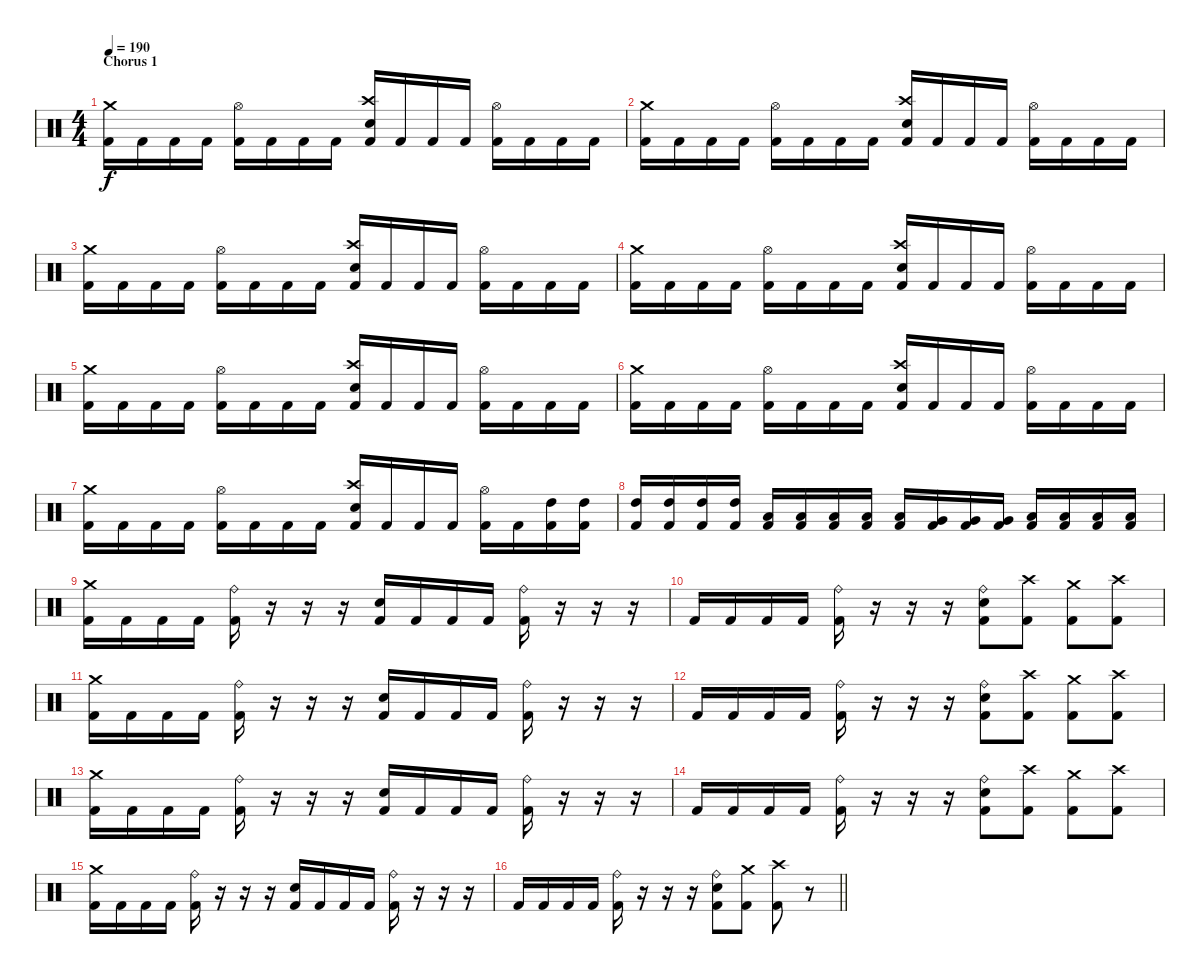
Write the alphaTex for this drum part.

\track "" {instrument percussion}
\staff {score}
\articulation defaults
\ts (4 4)
\section ("" "Chorus 1")
\tempo 190
\clef neutral
\ks c
("Crash medium (hit)" "Kick (hit) 2").16{dy f} "Kick (hit) 2".16 "Kick (hit) 2".16 "Kick (hit) 2".16 ("Hi-Hat (open)" "Kick (hit) 2").16 "Kick (hit) 2".16 "Kick (hit) 2".16 "Kick (hit) 2".16 ("Crash high (hit)" "Electric Snare (hit)" "Kick (hit) 2").16 "Kick (hit) 2".16 "Kick (hit) 2".16 "Kick (hit) 2".16 ("Hi-Hat (open)" "Kick (hit) 2").16 "Kick (hit) 2".16 "Kick (hit) 2".16 "Kick (hit) 2".16 |
("Crash medium (hit)" "Kick (hit) 2").16 "Kick (hit) 2".16 "Kick (hit) 2".16 "Kick (hit) 2".16 ("Hi-Hat (open)" "Kick (hit) 2").16 "Kick (hit) 2".16 "Kick (hit) 2".16 "Kick (hit) 2".16 ("Crash high (hit)" "Electric Snare (hit)" "Kick (hit) 2").16 "Kick (hit) 2".16 "Kick (hit) 2".16 "Kick (hit) 2".16 ("Hi-Hat (open)" "Kick (hit) 2").16 "Kick (hit) 2".16 "Kick (hit) 2".16 "Kick (hit) 2".16 |
("Crash medium (hit)" "Kick (hit) 2").16 "Kick (hit) 2".16 "Kick (hit) 2".16 "Kick (hit) 2".16 ("Hi-Hat (open)" "Kick (hit) 2").16 "Kick (hit) 2".16 "Kick (hit) 2".16 "Kick (hit) 2".16 ("Crash high (hit)" "Electric Snare (hit)" "Kick (hit) 2").16 "Kick (hit) 2".16 "Kick (hit) 2".16 "Kick (hit) 2".16 ("Hi-Hat (open)" "Kick (hit) 2").16 "Kick (hit) 2".16 "Kick (hit) 2".16 "Kick (hit) 2".16 |
("Crash medium (hit)" "Kick (hit) 2").16 "Kick (hit) 2".16 "Kick (hit) 2".16 "Kick (hit) 2".16 ("Hi-Hat (open)" "Kick (hit) 2").16 "Kick (hit) 2".16 "Kick (hit) 2".16 "Kick (hit) 2".16 ("Crash high (hit)" "Electric Snare (hit)" "Kick (hit) 2").16 "Kick (hit) 2".16 "Kick (hit) 2".16 "Kick (hit) 2".16 ("Hi-Hat (open)" "Kick (hit) 2").16 "Kick (hit) 2".16 "Kick (hit) 2".16 "Kick (hit) 2".16 |
("Crash medium (hit)" "Kick (hit) 2").16 "Kick (hit) 2".16 "Kick (hit) 2".16 "Kick (hit) 2".16 ("Hi-Hat (open)" "Kick (hit) 2").16 "Kick (hit) 2".16 "Kick (hit) 2".16 "Kick (hit) 2".16 ("Crash high (hit)" "Electric Snare (hit)" "Kick (hit) 2").16 "Kick (hit) 2".16 "Kick (hit) 2".16 "Kick (hit) 2".16 ("Hi-Hat (open)" "Kick (hit) 2").16 "Kick (hit) 2".16 "Kick (hit) 2".16 "Kick (hit) 2".16 |
("Crash medium (hit)" "Kick (hit) 2").16 "Kick (hit) 2".16 "Kick (hit) 2".16 "Kick (hit) 2".16 ("Hi-Hat (open)" "Kick (hit) 2").16 "Kick (hit) 2".16 "Kick (hit) 2".16 "Kick (hit) 2".16 ("Crash high (hit)" "Electric Snare (hit)" "Kick (hit) 2").16 "Kick (hit) 2".16 "Kick (hit) 2".16 "Kick (hit) 2".16 ("Hi-Hat (open)" "Kick (hit) 2").16 "Kick (hit) 2".16 "Kick (hit) 2".16 "Kick (hit) 2".16 |
("Crash medium (hit)" "Kick (hit) 2").16 "Kick (hit) 2".16 "Kick (hit) 2".16 "Kick (hit) 2".16 ("Hi-Hat (open)" "Kick (hit) 2").16 "Kick (hit) 2".16 "Kick (hit) 2".16 "Kick (hit) 2".16 ("Crash high (hit)" "Electric Snare (hit)" "Kick (hit) 2").16 "Kick (hit) 2".16 "Kick (hit) 2".16 "Kick (hit) 2".16 ("Hi-Hat (open)" "Kick (hit) 2").16 "Kick (hit) 2".16 ("High Tom (hit)" "Kick (hit) 2").16 ("High Tom (hit)" "Kick (hit) 2").16 |
("High Tom (hit)" "Kick (hit) 2").16 ("High Tom (hit)" "Kick (hit) 2").16 ("High Tom (hit)" "Kick (hit) 2").16 ("High Tom (hit)" "Kick (hit) 2").16 ("Low Tom (hit)" "Kick (hit) 2").16 ("Low Tom (hit)" "Kick (hit) 2").16 ("Low Tom (hit)" "Kick (hit) 2").16 ("Low Tom (hit)" "Kick (hit) 2").16 ("Low Tom (hit)" "Kick (hit) 2").16 ("Very Low Tom (hit)" "Kick (hit) 2").16 ("Very Low Tom (hit)" "Kick (hit) 2").16 ("Very Low Tom (hit)" "Kick (hit) 2").16 ("Low Floor Tom (hit)" "Kick (hit) 2").16 ("Low Floor Tom (hit)" "Kick (hit) 2").16 ("Low Floor Tom (hit)" "Kick (hit) 2").16 ("Low Floor Tom (hit)" "Kick (hit) 2").16 |
("Crash medium (hit)" "Kick (hit) 2").16 "Kick (hit) 2".16 "Kick (hit) 2".16 "Kick (hit) 2".16 ("Ride (bell)" "Kick (hit) 2").16 r.16 r.16 r.16 ("Electric Snare (hit)" "Kick (hit) 2").16 "Kick (hit) 2".16 "Kick (hit) 2".16 "Kick (hit) 2".16 ("Ride (bell)" "Kick (hit) 2").16 r.16 r.16 r.16 |
"Kick (hit) 2".16 "Kick (hit) 2".16 "Kick (hit) 2".16 "Kick (hit) 2".16 ("Ride (bell)" "Kick (hit) 2").16 r.16 r.16 r.16 ("Ride (bell)" "Electric Snare (hit)" "Kick (hit) 2").8 ("Crash high (hit)" "Kick (hit) 2").8 ("Crash medium (hit)" "Kick (hit) 2").8 ("Crash high (hit)" "Kick (hit) 2").8 |
("Crash medium (hit)" "Kick (hit) 2").16 "Kick (hit) 2".16 "Kick (hit) 2".16 "Kick (hit) 2".16 ("Ride (bell)" "Kick (hit) 2").16 r.16 r.16 r.16 ("Electric Snare (hit)" "Kick (hit) 2").16 "Kick (hit) 2".16 "Kick (hit) 2".16 "Kick (hit) 2".16 ("Ride (bell)" "Kick (hit) 2").16 r.16 r.16 r.16 |
"Kick (hit) 2".16 "Kick (hit) 2".16 "Kick (hit) 2".16 "Kick (hit) 2".16 ("Ride (bell)" "Kick (hit) 2").16 r.16 r.16 r.16 ("Ride (bell)" "Electric Snare (hit)" "Kick (hit) 2").8 ("Crash high (hit)" "Kick (hit) 2").8 ("Crash medium (hit)" "Kick (hit) 2").8 ("Crash high (hit)" "Kick (hit) 2").8 |
("Crash medium (hit)" "Kick (hit) 2").16 "Kick (hit) 2".16 "Kick (hit) 2".16 "Kick (hit) 2".16 ("Ride (bell)" "Kick (hit) 2").16 r.16 r.16 r.16 ("Electric Snare (hit)" "Kick (hit) 2").16 "Kick (hit) 2".16 "Kick (hit) 2".16 "Kick (hit) 2".16 ("Ride (bell)" "Kick (hit) 2").16 r.16 r.16 r.16 |
"Kick (hit) 2".16 "Kick (hit) 2".16 "Kick (hit) 2".16 "Kick (hit) 2".16 ("Ride (bell)" "Kick (hit) 2").16 r.16 r.16 r.16 ("Ride (bell)" "Electric Snare (hit)" "Kick (hit) 2").8 ("Crash high (hit)" "Kick (hit) 2").8 ("Crash medium (hit)" "Kick (hit) 2").8 ("Crash high (hit)" "Kick (hit) 2").8 |
("Crash medium (hit)" "Kick (hit) 2").16 "Kick (hit) 2".16 "Kick (hit) 2".16 "Kick (hit) 2".16 ("Ride (bell)" "Kick (hit) 2").16 r.16 r.16 r.16 ("Electric Snare (hit)" "Kick (hit) 2").16 "Kick (hit) 2".16 "Kick (hit) 2".16 "Kick (hit) 2".16 ("Ride (bell)" "Kick (hit) 2").16 r.16 r.16 r.16 |
\barLineRight lightlight "Kick (hit) 2".16 "Kick (hit) 2".16 "Kick (hit) 2".16 "Kick (hit) 2".16
("Ride (bell)" "Kick (hit) 2").16 r.16 r.16 r.16 ("Ride (bell)" "Electric Snare (hit)" "Kick (hit) 2").8 ("Crash medium (hit)" "Kick (hit) 2").8 ("Crash high (hit)" "Kick (hit) 2").8 r.8
